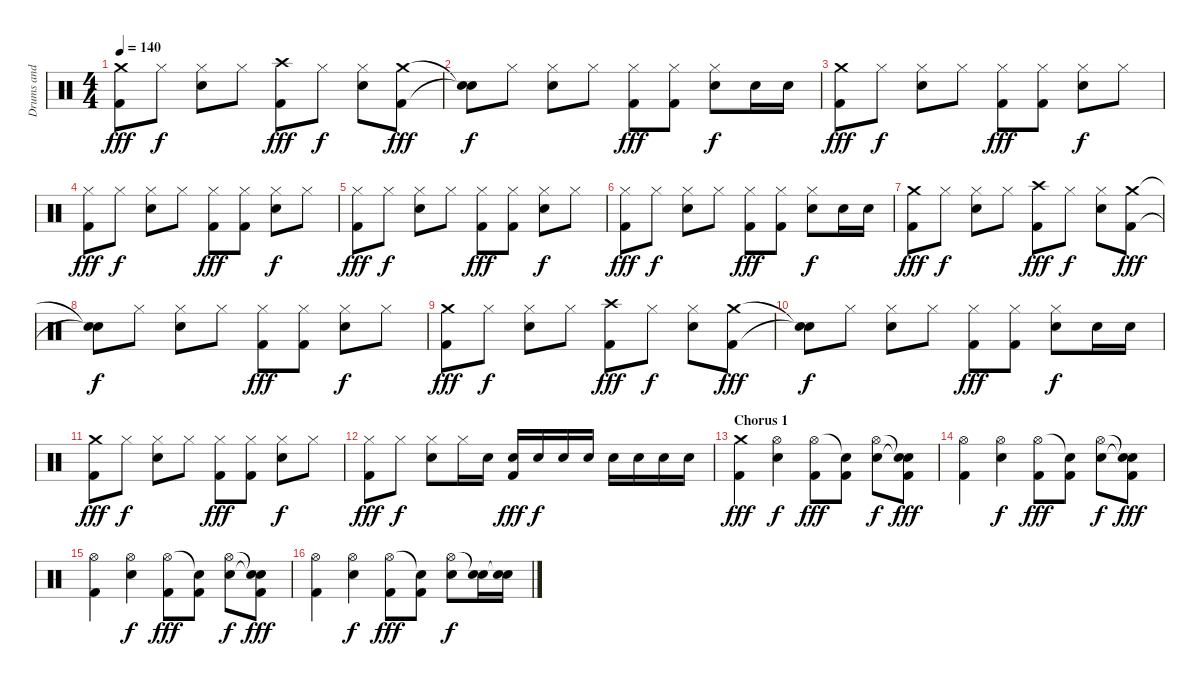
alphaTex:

\track ("Drums and Percussion" "Drums and ") {instrument percussion}
\staff {score}
\articulation defaults
\ts (4 4)
\tempo 140
\clef neutral
\ks c
("Crash medium (hit)" "Kick (hit) 2").8{dy fff} "Hi-Hat (closed)".8{dy f} ("Hi-Hat (closed)" "Snare (hit) 2").8 "Hi-Hat (closed)".8 ("Crash high (hit)" "Kick (hit) 2").8{dy fff} "Hi-Hat (closed)".8{dy f} ("Hi-Hat (closed)" "Snare (hit) 2").8 ("Crash medium (hit)" "Kick (hit) 2").8{dy fff} |
("Snare (hit)"{t} "Snare (hit)"{t}).8{dy f} "Hi-Hat (closed)".8 ("Hi-Hat (closed)" "Snare (hit) 2").8 "Hi-Hat (closed)".8 ("Hi-Hat (closed)" "Kick (hit) 2").8{dy fff} ("Hi-Hat (closed)" "Kick (hit) 2").8 ("Hi-Hat (closed)" "Snare (hit) 2").8{dy f} "Snare (hit) 2".16 "Snare (hit) 2".16 |
("Crash medium (hit)" "Kick (hit) 2").8{dy fff} "Hi-Hat (closed)".8{dy f} ("Hi-Hat (closed)" "Snare (hit) 2").8 "Hi-Hat (closed)".8 ("Hi-Hat (closed)" "Kick (hit) 2").8{dy fff} ("Hi-Hat (closed)" "Kick (hit) 2").8 ("Hi-Hat (closed)" "Snare (hit) 2").8{dy f} "Hi-Hat (closed)".8 |
("Hi-Hat (closed)" "Kick (hit) 2").8{dy fff} "Hi-Hat (closed)".8{dy f} ("Hi-Hat (closed)" "Snare (hit) 2").8 "Hi-Hat (closed)".8 ("Hi-Hat (closed)" "Kick (hit) 2").8{dy fff} ("Hi-Hat (closed)" "Kick (hit) 2").8 ("Hi-Hat (closed)" "Snare (hit) 2").8{dy f} "Hi-Hat (closed)".8 |
("Hi-Hat (closed)" "Kick (hit) 2").8{dy fff} "Hi-Hat (closed)".8{dy f} ("Hi-Hat (closed)" "Snare (hit) 2").8 "Hi-Hat (closed)".8 ("Hi-Hat (closed)" "Kick (hit) 2").8{dy fff} ("Hi-Hat (closed)" "Kick (hit) 2").8 ("Hi-Hat (closed)" "Snare (hit) 2").8{dy f} "Hi-Hat (closed)".8 |
("Hi-Hat (closed)" "Kick (hit) 2").8{dy fff} "Hi-Hat (closed)".8{dy f} ("Hi-Hat (closed)" "Snare (hit) 2").8 "Hi-Hat (closed)".8 ("Hi-Hat (closed)" "Kick (hit) 2").8{dy fff} ("Hi-Hat (closed)" "Kick (hit) 2").8 ("Hi-Hat (closed)" "Snare (hit) 2").8{dy f} "Snare (hit) 2".16 "Snare (hit) 2".16 |
("Crash medium (hit)" "Kick (hit) 2").8{dy fff} "Hi-Hat (closed)".8{dy f} ("Hi-Hat (closed)" "Snare (hit) 2").8 "Hi-Hat (closed)".8 ("Crash high (hit)" "Kick (hit) 2").8{dy fff} "Hi-Hat (closed)".8{dy f} ("Hi-Hat (closed)" "Snare (hit) 2").8 ("Crash medium (hit)" "Kick (hit) 2").8{dy fff} |
("Snare (hit)"{t} "Snare (hit)"{t}).8{dy f} "Hi-Hat (closed)".8 ("Hi-Hat (closed)" "Snare (hit) 2").8 "Hi-Hat (closed)".8 ("Hi-Hat (closed)" "Kick (hit) 2").8{dy fff} ("Hi-Hat (closed)" "Kick (hit) 2").8 ("Hi-Hat (closed)" "Snare (hit) 2").8{dy f} "Hi-Hat (closed)".8 |
("Crash medium (hit)" "Kick (hit) 2").8{dy fff} "Hi-Hat (closed)".8{dy f} ("Hi-Hat (closed)" "Snare (hit) 2").8 "Hi-Hat (closed)".8 ("Crash high (hit)" "Kick (hit) 2").8{dy fff} "Hi-Hat (closed)".8{dy f} ("Hi-Hat (closed)" "Snare (hit) 2").8 ("Crash medium (hit)" "Kick (hit) 2").8{dy fff} |
("Snare (hit)"{t} "Snare (hit)"{t}).8{dy f} "Hi-Hat (closed)".8 ("Hi-Hat (closed)" "Snare (hit) 2").8 "Hi-Hat (closed)".8 ("Hi-Hat (closed)" "Kick (hit) 2").8{dy fff} ("Hi-Hat (closed)" "Kick (hit) 2").8 ("Hi-Hat (closed)" "Snare (hit) 2").8{dy f} "Snare (hit) 2".16 "Snare (hit) 2".16 |
("Crash medium (hit)" "Kick (hit) 2").8{dy fff} "Hi-Hat (closed)".8{dy f} ("Hi-Hat (closed)" "Snare (hit) 2").8 "Hi-Hat (closed)".8 ("Hi-Hat (closed)" "Kick (hit) 2").8{dy fff} ("Hi-Hat (closed)" "Kick (hit) 2").8 ("Hi-Hat (closed)" "Snare (hit) 2").8{dy f} "Hi-Hat (closed)".8 |
("Hi-Hat (closed)" "Kick (hit) 2").8{dy fff} "Hi-Hat (closed)".8{dy f} ("Hi-Hat (closed)" "Snare (hit) 2").8 "Hi-Hat (closed)".16 "Snare (hit) 2".16 ("Snare (hit) 2" "Kick (hit) 2").16{dy fff} "Snare (hit) 2".16{dy f} "Snare (hit) 2".16 "Snare (hit) 2".16 "Snare (hit) 2".16 "Snare (hit) 2".16 "Snare (hit) 2".16 "Snare (hit) 2".16 |
\section ("" "Chorus 1")
("Crash medium (hit)" "Kick (hit) 2").4{dy fff} ("Hi-Hat (open)" "Snare (hit) 2").4{dy f} ("Hi-Hat (open)" "Kick (hit) 2").8{dy fff} ("Snare (hit)"{t} "Kick (hit) 2").8 ("Hi-Hat (open)" "Snare (hit) 2").8{dy f} ("Snare (hit)"{t} "Snare (hit)"{t} "Kick (hit) 2").8{dy fff} |
("Hi-Hat (open)" "Kick (hit) 2").4 ("Hi-Hat (open)" "Snare (hit) 2").4{dy f} ("Hi-Hat (open)" "Kick (hit) 2").8{dy fff} ("Snare (hit)"{t} "Kick (hit) 2").8 ("Hi-Hat (open)" "Snare (hit) 2").8{dy f} ("Snare (hit)"{t} "Snare (hit)"{t} "Kick (hit) 2").8{dy fff} |
("Hi-Hat (open)" "Kick (hit) 2").4 ("Hi-Hat (open)" "Snare (hit) 2").4{dy f} ("Hi-Hat (open)" "Kick (hit) 2").8{dy fff} ("Snare (hit)"{t} "Kick (hit) 2").8 ("Hi-Hat (open)" "Snare (hit) 2").8{dy f} ("Snare (hit)"{t} "Snare (hit)"{t} "Kick (hit) 2").8{dy fff} |
("Hi-Hat (open)" "Kick (hit) 2").4 ("Hi-Hat (open)" "Snare (hit) 2").4{dy f} ("Hi-Hat (open)" "Kick (hit) 2").8{dy fff} ("Snare (hit)"{t} "Kick (hit) 2").8 ("Hi-Hat (open)" "Snare (hit) 2").8{dy f} ("Snare (hit)"{t} "Snare (hit) 2").16 ("Snare (hit)"{t} "Snare (hit) 2").16
